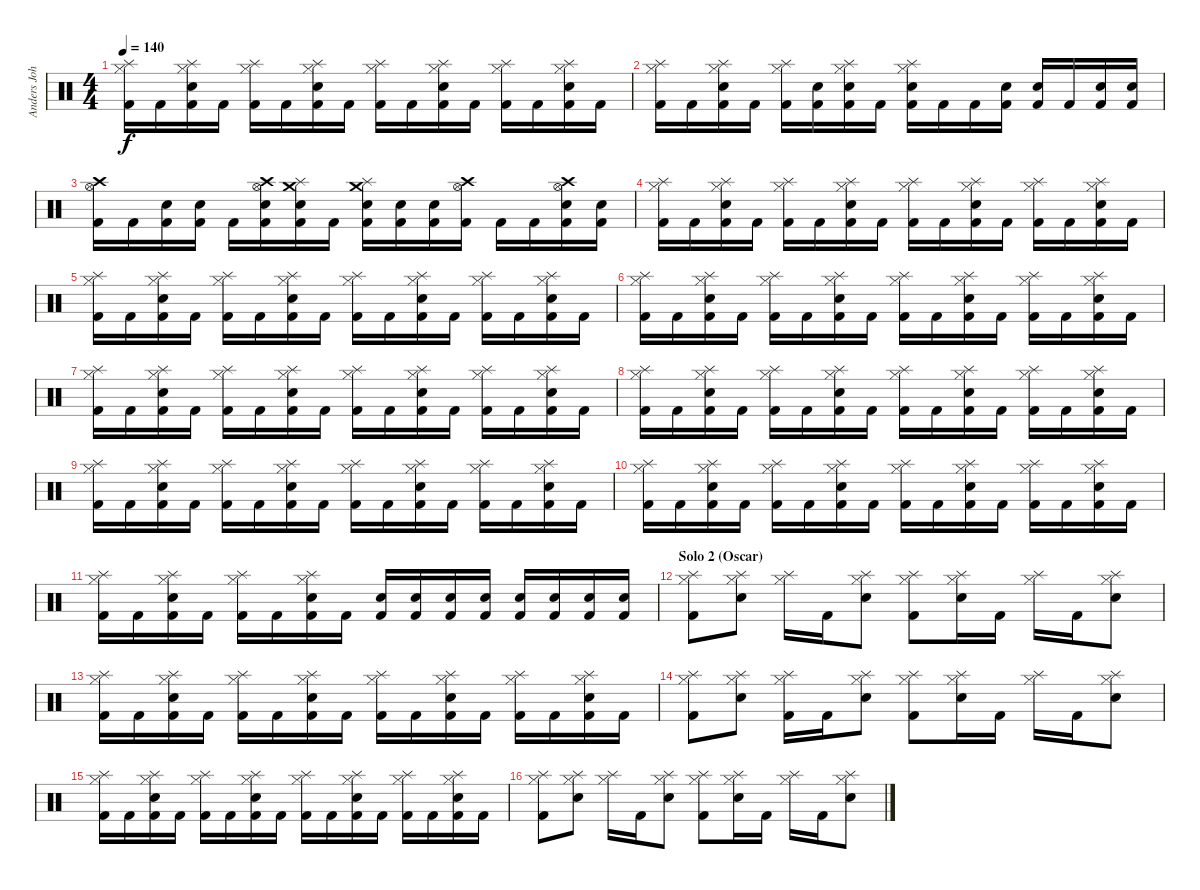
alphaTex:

\track ("Anders Johansson :: Drums" "Anders Joh") {instrument percussion}
\staff {score}
\articulation defaults
\ts (4 4)
\tempo 140
\clef neutral
\ks c
("Hi-Hat (closed)" "Splash (hit)" "Kick (hit) 2").16{dy f} "Kick (hit) 2".16 ("Hi-Hat (closed)" "Splash (hit)" "Snare (hit) 2" "Kick (hit) 2").16 "Kick (hit) 2".16 ("Hi-Hat (closed)" "Splash (hit)" "Kick (hit) 2").16 "Kick (hit) 2".16 ("Hi-Hat (closed)" "Splash (hit)" "Snare (hit) 2" "Kick (hit) 2").16 "Kick (hit) 2".16 ("Hi-Hat (closed)" "Splash (hit)" "Kick (hit) 2").16 "Kick (hit) 2".16 ("Hi-Hat (closed)" "Splash (hit)" "Snare (hit) 2" "Kick (hit) 2").16 "Kick (hit) 2".16 ("Hi-Hat (closed)" "Splash (hit)" "Kick (hit) 2").16 "Kick (hit) 2".16 ("Hi-Hat (closed)" "Splash (hit)" "Snare (hit) 2" "Kick (hit) 2").16 "Kick (hit) 2".16 |
("Hi-Hat (closed)" "Splash (hit)" "Kick (hit) 2").16 "Kick (hit) 2".16 ("Hi-Hat (closed)" "Splash (hit)" "Snare (hit) 2" "Kick (hit) 2").16 "Kick (hit) 2".16 ("Hi-Hat (closed)" "Splash (hit)" "Kick (hit) 2").16 ("Snare (hit) 2" "Kick (hit) 2").16 ("Hi-Hat (closed)" "Splash (hit)" "Snare (hit) 2" "Kick (hit) 2").16 "Kick (hit) 2".16 ("Hi-Hat (closed)" "Splash (hit)" "Snare (hit) 2" "Kick (hit) 2").16 "Kick (hit) 2".16 "Kick (hit) 2".16 ("Snare (hit) 2" "Kick (hit) 2").16 ("Snare (hit) 2" "Kick (hit) 2").16 "Kick (hit) 2".16 ("Snare (hit) 2" "Kick (hit) 2").16 ("Snare (hit) 2" "Kick (hit) 2").16 |
("Crash high (hit)" "Hi-Hat (open)" "Kick (hit) 2").16 "Kick (hit) 2".16 ("Snare (hit) 2" "Kick (hit) 2").16 ("Snare (hit) 2" "Kick (hit) 2").16 "Kick (hit) 2".16 ("Crash high (hit)" "Hi-Hat (open)" "Snare (hit) 2" "Kick (hit) 2").16 ("Crash medium (hit)" "Splash (hit)" "Snare (hit) 2" "Kick (hit) 2").16 "Kick (hit) 2".16 ("Crash medium (hit)" "Splash (hit)" "Snare (hit) 2" "Kick (hit) 2").16 ("Snare (hit) 2" "Kick (hit) 2").16 ("Snare (hit) 2" "Kick (hit) 2").16 ("Crash high (hit)" "Hi-Hat (open)" "Kick (hit) 2").16 "Kick (hit) 2".16 "Kick (hit) 2".16 ("Crash high (hit)" "Hi-Hat (open)" "Snare (hit) 2" "Kick (hit) 2").16 ("Snare (hit) 2" "Kick (hit) 2").16 |
("Hi-Hat (closed)" "Splash (hit)" "Kick (hit) 2").16 "Kick (hit) 2".16 ("Hi-Hat (closed)" "Splash (hit)" "Snare (hit) 2" "Kick (hit) 2").16 "Kick (hit) 2".16 ("Hi-Hat (closed)" "Splash (hit)" "Kick (hit) 2").16 "Kick (hit) 2".16 ("Hi-Hat (closed)" "Splash (hit)" "Snare (hit) 2" "Kick (hit) 2").16 "Kick (hit) 2".16 ("Hi-Hat (closed)" "Splash (hit)" "Kick (hit) 2").16 "Kick (hit) 2".16 ("Hi-Hat (closed)" "Splash (hit)" "Snare (hit) 2" "Kick (hit) 2").16 "Kick (hit) 2".16 ("Hi-Hat (closed)" "Splash (hit)" "Kick (hit) 2").16 "Kick (hit) 2".16 ("Hi-Hat (closed)" "Splash (hit)" "Snare (hit) 2" "Kick (hit) 2").16 "Kick (hit) 2".16 |
("Hi-Hat (closed)" "Splash (hit)" "Kick (hit) 2").16 "Kick (hit) 2".16 ("Hi-Hat (closed)" "Splash (hit)" "Snare (hit) 2" "Kick (hit) 2").16 "Kick (hit) 2".16 ("Hi-Hat (closed)" "Splash (hit)" "Kick (hit) 2").16 "Kick (hit) 2".16 ("Hi-Hat (closed)" "Splash (hit)" "Snare (hit) 2" "Kick (hit) 2").16 "Kick (hit) 2".16 ("Hi-Hat (closed)" "Splash (hit)" "Kick (hit) 2").16 "Kick (hit) 2".16 ("Hi-Hat (closed)" "Splash (hit)" "Snare (hit) 2" "Kick (hit) 2").16 "Kick (hit) 2".16 ("Hi-Hat (closed)" "Splash (hit)" "Kick (hit) 2").16 "Kick (hit) 2".16 ("Hi-Hat (closed)" "Splash (hit)" "Snare (hit) 2" "Kick (hit) 2").16 "Kick (hit) 2".16 |
("Hi-Hat (closed)" "Splash (hit)" "Kick (hit) 2").16 "Kick (hit) 2".16 ("Hi-Hat (closed)" "Splash (hit)" "Snare (hit) 2" "Kick (hit) 2").16 "Kick (hit) 2".16 ("Hi-Hat (closed)" "Splash (hit)" "Kick (hit) 2").16 "Kick (hit) 2".16 ("Hi-Hat (closed)" "Splash (hit)" "Snare (hit) 2" "Kick (hit) 2").16 "Kick (hit) 2".16 ("Hi-Hat (closed)" "Splash (hit)" "Kick (hit) 2").16 "Kick (hit) 2".16 ("Hi-Hat (closed)" "Splash (hit)" "Snare (hit) 2" "Kick (hit) 2").16 "Kick (hit) 2".16 ("Hi-Hat (closed)" "Splash (hit)" "Kick (hit) 2").16 "Kick (hit) 2".16 ("Hi-Hat (closed)" "Splash (hit)" "Snare (hit) 2" "Kick (hit) 2").16 "Kick (hit) 2".16 |
("Hi-Hat (closed)" "Splash (hit)" "Kick (hit) 2").16 "Kick (hit) 2".16 ("Hi-Hat (closed)" "Splash (hit)" "Snare (hit) 2" "Kick (hit) 2").16 "Kick (hit) 2".16 ("Hi-Hat (closed)" "Splash (hit)" "Kick (hit) 2").16 "Kick (hit) 2".16 ("Hi-Hat (closed)" "Splash (hit)" "Snare (hit) 2" "Kick (hit) 2").16 "Kick (hit) 2".16 ("Hi-Hat (closed)" "Splash (hit)" "Kick (hit) 2").16 "Kick (hit) 2".16 ("Hi-Hat (closed)" "Splash (hit)" "Snare (hit) 2" "Kick (hit) 2").16 "Kick (hit) 2".16 ("Hi-Hat (closed)" "Splash (hit)" "Kick (hit) 2").16 "Kick (hit) 2".16 ("Hi-Hat (closed)" "Splash (hit)" "Snare (hit) 2" "Kick (hit) 2").16 "Kick (hit) 2".16 |
("Hi-Hat (closed)" "Splash (hit)" "Kick (hit) 2").16 "Kick (hit) 2".16 ("Hi-Hat (closed)" "Splash (hit)" "Snare (hit) 2" "Kick (hit) 2").16 "Kick (hit) 2".16 ("Hi-Hat (closed)" "Splash (hit)" "Kick (hit) 2").16 "Kick (hit) 2".16 ("Hi-Hat (closed)" "Splash (hit)" "Snare (hit) 2" "Kick (hit) 2").16 "Kick (hit) 2".16 ("Hi-Hat (closed)" "Splash (hit)" "Kick (hit) 2").16 "Kick (hit) 2".16 ("Hi-Hat (closed)" "Splash (hit)" "Snare (hit) 2" "Kick (hit) 2").16 "Kick (hit) 2".16 ("Hi-Hat (closed)" "Splash (hit)" "Kick (hit) 2").16 "Kick (hit) 2".16 ("Hi-Hat (closed)" "Splash (hit)" "Snare (hit) 2" "Kick (hit) 2").16 "Kick (hit) 2".16 |
("Hi-Hat (closed)" "Splash (hit)" "Kick (hit) 2").16 "Kick (hit) 2".16 ("Hi-Hat (closed)" "Splash (hit)" "Snare (hit) 2" "Kick (hit) 2").16 "Kick (hit) 2".16 ("Hi-Hat (closed)" "Splash (hit)" "Kick (hit) 2").16 "Kick (hit) 2".16 ("Hi-Hat (closed)" "Splash (hit)" "Snare (hit) 2" "Kick (hit) 2").16 "Kick (hit) 2".16 ("Hi-Hat (closed)" "Splash (hit)" "Kick (hit) 2").16 "Kick (hit) 2".16 ("Hi-Hat (closed)" "Splash (hit)" "Snare (hit) 2" "Kick (hit) 2").16 "Kick (hit) 2".16 ("Hi-Hat (closed)" "Splash (hit)" "Kick (hit) 2").16 "Kick (hit) 2".16 ("Hi-Hat (closed)" "Splash (hit)" "Snare (hit) 2" "Kick (hit) 2").16 "Kick (hit) 2".16 |
("Hi-Hat (closed)" "Splash (hit)" "Kick (hit) 2").16 "Kick (hit) 2".16 ("Hi-Hat (closed)" "Splash (hit)" "Snare (hit) 2" "Kick (hit) 2").16 "Kick (hit) 2".16 ("Hi-Hat (closed)" "Splash (hit)" "Kick (hit) 2").16 "Kick (hit) 2".16 ("Hi-Hat (closed)" "Splash (hit)" "Snare (hit) 2" "Kick (hit) 2").16 "Kick (hit) 2".16 ("Hi-Hat (closed)" "Splash (hit)" "Kick (hit) 2").16 "Kick (hit) 2".16 ("Hi-Hat (closed)" "Splash (hit)" "Snare (hit) 2" "Kick (hit) 2").16 "Kick (hit) 2".16 ("Hi-Hat (closed)" "Splash (hit)" "Kick (hit) 2").16 "Kick (hit) 2".16 ("Hi-Hat (closed)" "Splash (hit)" "Snare (hit) 2" "Kick (hit) 2").16 "Kick (hit) 2".16 |
("Hi-Hat (closed)" "Splash (hit)" "Kick (hit) 2").16 "Kick (hit) 2".16 ("Hi-Hat (closed)" "Splash (hit)" "Snare (hit) 2" "Kick (hit) 2").16 "Kick (hit) 2".16 ("Hi-Hat (closed)" "Splash (hit)" "Kick (hit) 2").16 "Kick (hit) 2".16 ("Hi-Hat (closed)" "Splash (hit)" "Snare (hit) 2" "Kick (hit) 2").16 "Kick (hit) 2".16 ("Snare (hit) 2" "Kick (hit) 2").16 ("Snare (hit) 2" "Kick (hit) 2").16 ("Snare (hit) 2" "Kick (hit) 2").16 ("Snare (hit) 2" "Kick (hit) 2").16 ("Snare (hit) 2" "Kick (hit) 2").16 ("Snare (hit) 2" "Kick (hit) 2").16 ("Snare (hit) 2" "Kick (hit) 2").16 ("Snare (hit) 2" "Kick (hit) 2").16 |
\section ("" "Solo 2 (Oscar)")
("Hi-Hat (closed)" "Splash (hit)" "Kick (hit) 2").8 ("Hi-Hat (closed)" "Splash (hit)" "Snare (hit) 2").8 ("Hi-Hat (closed)" "Splash (hit)").16 "Kick (hit) 2".16 ("Hi-Hat (closed)" "Splash (hit)" "Snare (hit) 2").8 ("Hi-Hat (closed)" "Splash (hit)" "Kick (hit) 2").8 ("Hi-Hat (closed)" "Splash (hit)" "Snare (hit) 2").16 "Kick (hit) 2".16 ("Hi-Hat (closed)" "Splash (hit)").16 "Kick (hit) 2".16 ("Hi-Hat (closed)" "Splash (hit)" "Snare (hit) 2").8 |
("Hi-Hat (closed)" "Splash (hit)" "Kick (hit) 2").16 "Kick (hit) 2".16 ("Hi-Hat (closed)" "Splash (hit)" "Snare (hit) 2" "Kick (hit) 2").16 "Kick (hit) 2".16 ("Hi-Hat (closed)" "Splash (hit)" "Kick (hit) 2").16 "Kick (hit) 2".16 ("Hi-Hat (closed)" "Splash (hit)" "Snare (hit) 2" "Kick (hit) 2").16 "Kick (hit) 2".16 ("Hi-Hat (closed)" "Splash (hit)" "Kick (hit) 2").16 "Kick (hit) 2".16 ("Hi-Hat (closed)" "Splash (hit)" "Snare (hit) 2" "Kick (hit) 2").16 "Kick (hit) 2".16 ("Hi-Hat (closed)" "Splash (hit)" "Kick (hit) 2").16 "Kick (hit) 2".16 ("Hi-Hat (closed)" "Splash (hit)" "Snare (hit) 2" "Kick (hit) 2").16 "Kick (hit) 2".16 |
("Hi-Hat (closed)" "Splash (hit)" "Kick (hit) 2").8 ("Hi-Hat (closed)" "Splash (hit)" "Snare (hit) 2").8 ("Hi-Hat (closed)" "Splash (hit)" "Kick (hit) 2").16 "Kick (hit) 2".16 ("Hi-Hat (closed)" "Splash (hit)" "Snare (hit) 2").8 ("Hi-Hat (closed)" "Splash (hit)" "Kick (hit) 2").8 ("Hi-Hat (closed)" "Splash (hit)" "Snare (hit) 2").16 "Kick (hit) 2".16 ("Hi-Hat (closed)" "Splash (hit)").16 "Kick (hit) 2".16 ("Hi-Hat (closed)" "Splash (hit)" "Snare (hit) 2").8 |
("Hi-Hat (closed)" "Splash (hit)" "Kick (hit) 2").16 "Kick (hit) 2".16 ("Hi-Hat (closed)" "Splash (hit)" "Snare (hit) 2" "Kick (hit) 2").16 "Kick (hit) 2".16 ("Hi-Hat (closed)" "Splash (hit)" "Kick (hit) 2").16 "Kick (hit) 2".16 ("Hi-Hat (closed)" "Splash (hit)" "Snare (hit) 2" "Kick (hit) 2").16 "Kick (hit) 2".16 ("Hi-Hat (closed)" "Splash (hit)" "Kick (hit) 2").16 "Kick (hit) 2".16 ("Hi-Hat (closed)" "Splash (hit)" "Snare (hit) 2" "Kick (hit) 2").16 "Kick (hit) 2".16 ("Hi-Hat (closed)" "Splash (hit)" "Kick (hit) 2").16 "Kick (hit) 2".16 ("Hi-Hat (closed)" "Splash (hit)" "Snare (hit) 2" "Kick (hit) 2").16 "Kick (hit) 2".16 |
("Hi-Hat (closed)" "Splash (hit)" "Kick (hit) 2").8 ("Hi-Hat (closed)" "Splash (hit)" "Snare (hit) 2").8 ("Hi-Hat (closed)" "Splash (hit)").16 "Kick (hit) 2".16 ("Hi-Hat (closed)" "Splash (hit)" "Snare (hit) 2").8 ("Hi-Hat (closed)" "Splash (hit)" "Kick (hit) 2").8 ("Hi-Hat (closed)" "Splash (hit)" "Snare (hit) 2").16 "Kick (hit) 2".16 ("Hi-Hat (closed)" "Splash (hit)").16 "Kick (hit) 2".16 ("Hi-Hat (closed)" "Splash (hit)" "Snare (hit) 2").8
